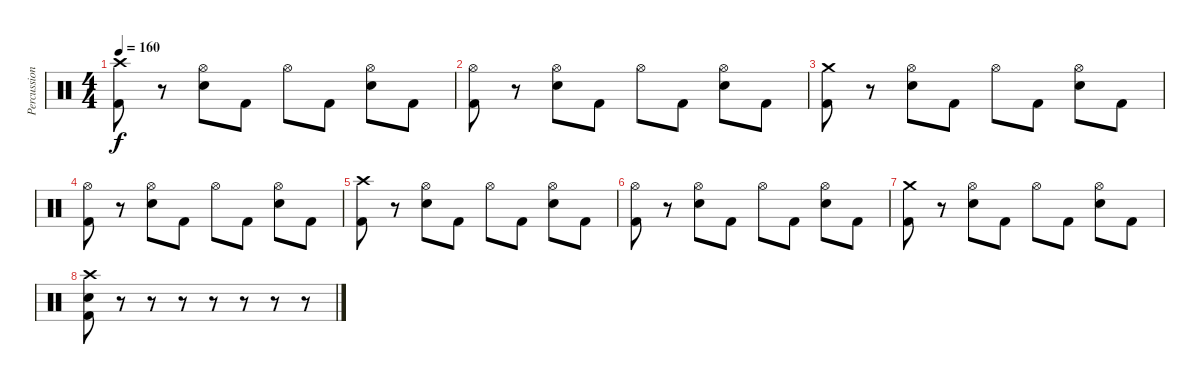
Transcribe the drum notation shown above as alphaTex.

\track ("Percussion" "Percussion") {instrument percussion}
\staff {score}
\articulation defaults
\ts (4 4)
\tempo 160
\clef neutral
\ks c
("Crash high (hit)" "Kick (hit) 2").8{dy f} r.8 ("Hi-Hat (open)" "Electric Snare (hit)").8 "Kick (hit) 2".8 "Hi-Hat (open)".8 "Kick (hit) 2".8 ("Hi-Hat (open)" "Electric Snare (hit)").8 "Kick (hit) 2".8 |
("Hi-Hat (open)" "Kick (hit) 2").8 r.8 ("Hi-Hat (open)" "Electric Snare (hit)").8 "Kick (hit) 2".8 "Hi-Hat (open)".8 "Kick (hit) 2".8 ("Hi-Hat (open)" "Electric Snare (hit)").8 "Kick (hit) 2".8 |
("Crash medium (hit)" "Kick (hit) 2").8 r.8 ("Hi-Hat (open)" "Electric Snare (hit)").8 "Kick (hit) 2".8 "Hi-Hat (open)".8 "Kick (hit) 2".8 ("Hi-Hat (open)" "Electric Snare (hit)").8 "Kick (hit) 2".8 |
("Hi-Hat (open)" "Kick (hit) 2").8 r.8 ("Hi-Hat (open)" "Electric Snare (hit)").8 "Kick (hit) 2".8 "Hi-Hat (open)".8 "Kick (hit) 2".8 ("Hi-Hat (open)" "Electric Snare (hit)").8 "Kick (hit) 2".8 |
("Crash high (hit)" "Kick (hit) 2").8 r.8 ("Hi-Hat (open)" "Electric Snare (hit)").8 "Kick (hit) 2".8 "Hi-Hat (open)".8 "Kick (hit) 2".8 ("Hi-Hat (open)" "Electric Snare (hit)").8 "Kick (hit) 2".8 |
("Hi-Hat (open)" "Kick (hit) 2").8 r.8 ("Hi-Hat (open)" "Electric Snare (hit)").8 "Kick (hit) 2".8 "Hi-Hat (open)".8 "Kick (hit) 2".8 ("Hi-Hat (open)" "Electric Snare (hit)").8 "Kick (hit) 2".8 |
("Crash medium (hit)" "Kick (hit) 2").8 r.8 ("Hi-Hat (open)" "Electric Snare (hit)").8 "Kick (hit) 2".8 "Hi-Hat (open)".8 "Kick (hit) 2".8 ("Hi-Hat (open)" "Electric Snare (hit)").8 "Kick (hit) 2".8 |
("Crash high (hit)" "Electric Snare (hit)" "Kick (hit) 2").8 r.8 r.8 r.8 r.8 r.8 r.8 r.8
